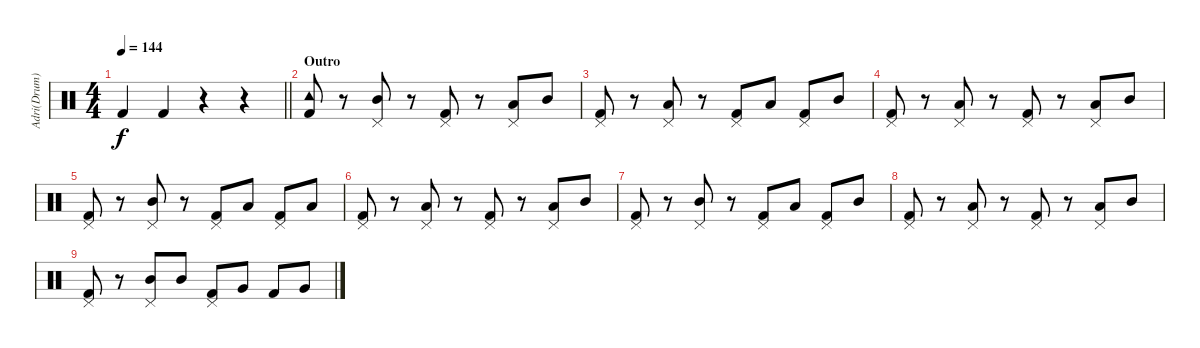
\track ("Adri(Drum)" "Adri(Drum)") {instrument percussion}
\staff {score}
\articulation defaults
\ts (4 4)
\tempo 144
\clef neutral
\barLineRight lightlight
\ks c "Kick (hit) 2".4{dy f} "Kick (hit) 2".4
r.4 r.4 |
\section ("" "Outro")
("Tambourine (hit)" "Kick (hit) 2").8 r.8 ("Pedal Hi-Hat (hit)" "Mid Tom (hit)").8 r.8 ("Pedal Hi-Hat (hit)" "Kick (hit) 2").8 r.8 ("Pedal Hi-Hat (hit)" "Low Tom (hit)").8 "Mid Tom (hit)".8 |
("Pedal Hi-Hat (hit)" "Kick (hit) 2").8 r.8 ("Pedal Hi-Hat (hit)" "Low Tom (hit)").8 r.8 ("Pedal Hi-Hat (hit)" "Kick (hit) 2").8 "Low Tom (hit)".8 ("Pedal Hi-Hat (hit)" "Kick (hit) 2").8 "Mid Tom (hit)".8 |
("Pedal Hi-Hat (hit)" "Kick (hit) 2").8 r.8 ("Pedal Hi-Hat (hit)" "Low Tom (hit)").8 r.8 ("Pedal Hi-Hat (hit)" "Kick (hit) 2").8 r.8 ("Pedal Hi-Hat (hit)" "Low Tom (hit)").8 "Mid Tom (hit)".8 |
("Pedal Hi-Hat (hit)" "Kick (hit) 2").8 r.8 ("Pedal Hi-Hat (hit)" "Mid Tom (hit)").8 r.8 ("Pedal Hi-Hat (hit)" "Kick (hit) 2").8 "Low Tom (hit)".8 ("Pedal Hi-Hat (hit)" "Kick (hit) 2").8 "Low Tom (hit)".8 |
("Pedal Hi-Hat (hit)" "Kick (hit) 2").8 r.8 ("Pedal Hi-Hat (hit)" "Low Tom (hit)").8 r.8 ("Pedal Hi-Hat (hit)" "Kick (hit) 2").8 r.8 ("Pedal Hi-Hat (hit)" "Low Tom (hit)").8 "Mid Tom (hit)".8 |
("Pedal Hi-Hat (hit)" "Kick (hit) 2").8 r.8 ("Pedal Hi-Hat (hit)" "Mid Tom (hit)").8 r.8 ("Pedal Hi-Hat (hit)" "Kick (hit) 2").8 "Low Tom (hit)".8 ("Pedal Hi-Hat (hit)" "Kick (hit) 2").8 "Mid Tom (hit)".8 |
("Pedal Hi-Hat (hit)" "Kick (hit) 2").8 r.8 ("Pedal Hi-Hat (hit)" "Low Tom (hit)").8 r.8 ("Pedal Hi-Hat (hit)" "Kick (hit) 2").8 r.8 ("Pedal Hi-Hat (hit)" "Low Tom (hit)").8 "Mid Tom (hit)".8 |
("Pedal Hi-Hat (hit)" "Kick (hit) 2").8 r.8 ("Pedal Hi-Hat (hit)" "Mid Tom (hit)").8 "Mid Tom (hit)".8 ("Pedal Hi-Hat (hit)" "Kick (hit) 2").8 "Very Low Tom (hit)".8 "Kick (hit) 2".8 "Very Low Tom (hit)".8
